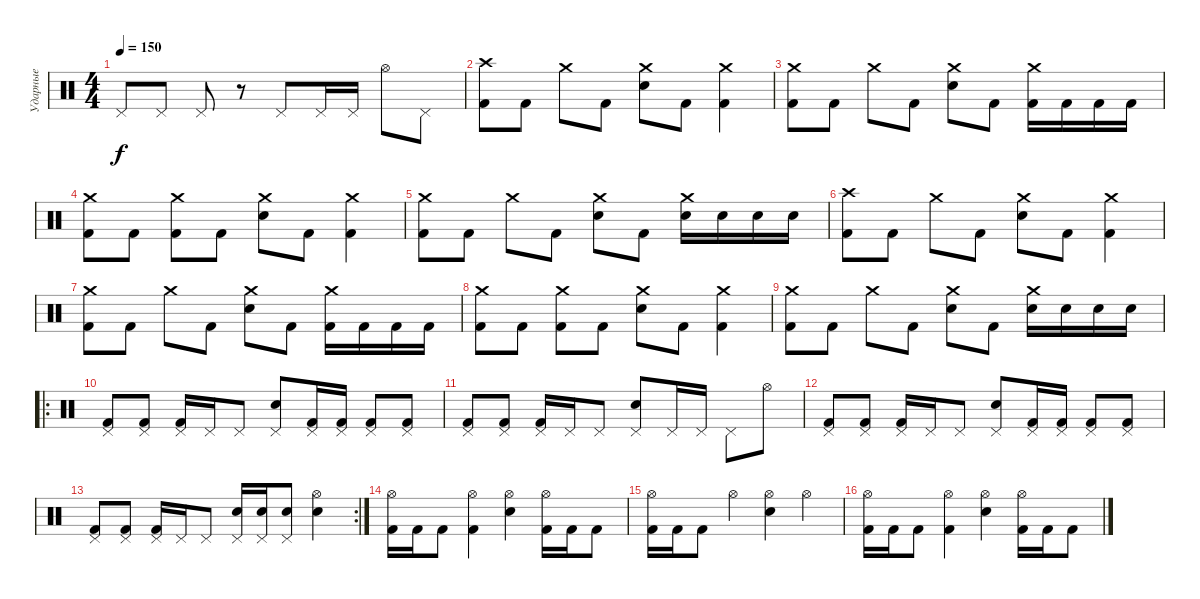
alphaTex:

\track ("Ударные" "Ударные") {instrument percussion}
\staff {score}
\articulation defaults
\ts (4 4)
\tempo 150
\clef neutral
\ks c "Pedal Hi-Hat (hit)".8{dy f} "Pedal Hi-Hat (hit)".8 "Pedal Hi-Hat (hit)".8
r.8 "Pedal Hi-Hat (hit)".8 "Pedal Hi-Hat (hit)".16 "Pedal Hi-Hat (hit)".16 "Hi-Hat (open)".8 "Pedal Hi-Hat (hit)".8 |
("Crash high (hit)" "Kick (hit) 2").8 "Kick (hit) 2".8 "Crash medium (hit)".8 "Kick (hit) 2".8 ("Crash medium (hit)" "Electric Snare (hit)").8 "Kick (hit) 2".8 ("Crash medium (hit)" "Kick (hit) 2").4 |
("Crash medium (hit)" "Kick (hit) 2").8 "Kick (hit) 2".8 "Crash medium (hit)".8 "Kick (hit) 2".8 ("Crash medium (hit)" "Electric Snare (hit)").8 "Kick (hit) 2".8 ("Crash medium (hit)" "Kick (hit) 2").16 "Kick (hit) 2".16 "Kick (hit) 2".16 "Kick (hit) 2".16 |
("Crash medium (hit)" "Kick (hit) 2").8 "Kick (hit) 2".8 ("Crash medium (hit)" "Kick (hit) 2").8 "Kick (hit) 2".8 ("Crash medium (hit)" "Electric Snare (hit)").8 "Kick (hit) 2".8 ("Crash medium (hit)" "Kick (hit) 2").4 |
("Crash medium (hit)" "Kick (hit) 2").8 "Kick (hit) 2".8 "Crash medium (hit)".8 "Kick (hit) 2".8 ("Crash medium (hit)" "Electric Snare (hit)").8 "Kick (hit) 2".8 ("Crash medium (hit)" "Electric Snare (hit)").16 "Electric Snare (hit)".16 "Electric Snare (hit)".16 "Electric Snare (hit)".16 |
("Crash high (hit)" "Kick (hit) 2").8 "Kick (hit) 2".8 "Crash medium (hit)".8 "Kick (hit) 2".8 ("Crash medium (hit)" "Electric Snare (hit)").8 "Kick (hit) 2".8 ("Crash medium (hit)" "Kick (hit) 2").4 |
("Crash medium (hit)" "Kick (hit) 2").8 "Kick (hit) 2".8 "Crash medium (hit)".8 "Kick (hit) 2".8 ("Crash medium (hit)" "Electric Snare (hit)").8 "Kick (hit) 2".8 ("Crash medium (hit)" "Kick (hit) 2").16 "Kick (hit) 2".16 "Kick (hit) 2".16 "Kick (hit) 2".16 |
("Crash medium (hit)" "Kick (hit) 2").8 "Kick (hit) 2".8 ("Crash medium (hit)" "Kick (hit) 2").8 "Kick (hit) 2".8 ("Crash medium (hit)" "Electric Snare (hit)").8 "Kick (hit) 2".8 ("Crash medium (hit)" "Kick (hit) 2").4 |
("Crash medium (hit)" "Kick (hit) 2").8 "Kick (hit) 2".8 "Crash medium (hit)".8 "Kick (hit) 2".8 ("Crash medium (hit)" "Electric Snare (hit)").8 "Kick (hit) 2".8 ("Crash medium (hit)" "Electric Snare (hit)").16 "Electric Snare (hit)".16 "Electric Snare (hit)".16 "Electric Snare (hit)".16 |
\ro
("Pedal Hi-Hat (hit)" "Kick (hit) 2").8 ("Pedal Hi-Hat (hit)" "Kick (hit) 2").8 ("Pedal Hi-Hat (hit)" "Kick (hit) 2").16 "Pedal Hi-Hat (hit)".16 "Pedal Hi-Hat (hit)".8 ("Pedal Hi-Hat (hit)" "Hand Clap (hit)").8 ("Pedal Hi-Hat (hit)" "Kick (hit) 2").16 ("Pedal Hi-Hat (hit)" "Kick (hit) 2").16 ("Pedal Hi-Hat (hit)" "Kick (hit) 2").8 ("Pedal Hi-Hat (hit)" "Kick (hit) 2").8 |
("Pedal Hi-Hat (hit)" "Kick (hit) 2").8 ("Pedal Hi-Hat (hit)" "Kick (hit) 2").8 ("Pedal Hi-Hat (hit)" "Kick (hit) 2").16 "Pedal Hi-Hat (hit)".16 "Pedal Hi-Hat (hit)".8 ("Pedal Hi-Hat (hit)" "Hand Clap (hit)").8 "Pedal Hi-Hat (hit)".16 "Pedal Hi-Hat (hit)".16 "Pedal Hi-Hat (hit)".8 "Hi-Hat (open)".8 |
("Pedal Hi-Hat (hit)" "Kick (hit) 2").8 ("Pedal Hi-Hat (hit)" "Kick (hit) 2").8 ("Pedal Hi-Hat (hit)" "Kick (hit) 2").16 "Pedal Hi-Hat (hit)".16 "Pedal Hi-Hat (hit)".8 ("Pedal Hi-Hat (hit)" "Hand Clap (hit)").8 ("Pedal Hi-Hat (hit)" "Kick (hit) 2").16 ("Pedal Hi-Hat (hit)" "Kick (hit) 2").16 ("Pedal Hi-Hat (hit)" "Kick (hit) 2").8 ("Pedal Hi-Hat (hit)" "Kick (hit) 2").8 |
\rc 2
("Pedal Hi-Hat (hit)" "Kick (hit) 2").8 ("Pedal Hi-Hat (hit)" "Kick (hit) 2").8 ("Pedal Hi-Hat (hit)" "Kick (hit) 2").16 "Pedal Hi-Hat (hit)".16 "Pedal Hi-Hat (hit)".8 ("Pedal Hi-Hat (hit)" "Hand Clap (hit)").16 ("Pedal Hi-Hat (hit)" "Hand Clap (hit)").16 ("Pedal Hi-Hat (hit)" "Hand Clap (hit)").8 ("Hi-Hat (open)" "Hand Clap (hit)").4 |
("Hi-Hat (open)" "Kick (hit) 2").16 "Kick (hit) 2".16 "Kick (hit) 2".8 ("Hi-Hat (open)" "Kick (hit) 2").4 ("Hi-Hat (open)" "Electric Snare (hit)").4 ("Hi-Hat (open)" "Kick (hit) 2").16 "Kick (hit) 2".16 "Kick (hit) 2".8 |
("Hi-Hat (open)" "Kick (hit) 2").16 "Kick (hit) 2".16 "Kick (hit) 2".8 "Hi-Hat (open)".4 ("Hi-Hat (open)" "Electric Snare (hit)").4 "Hi-Hat (open)".4 |
("Hi-Hat (open)" "Kick (hit) 2").16 "Kick (hit) 2".16 "Kick (hit) 2".8 ("Hi-Hat (open)" "Kick (hit) 2").4 ("Hi-Hat (open)" "Electric Snare (hit)").4 ("Hi-Hat (open)" "Kick (hit) 2").16 "Kick (hit) 2".16 "Kick (hit) 2".8
